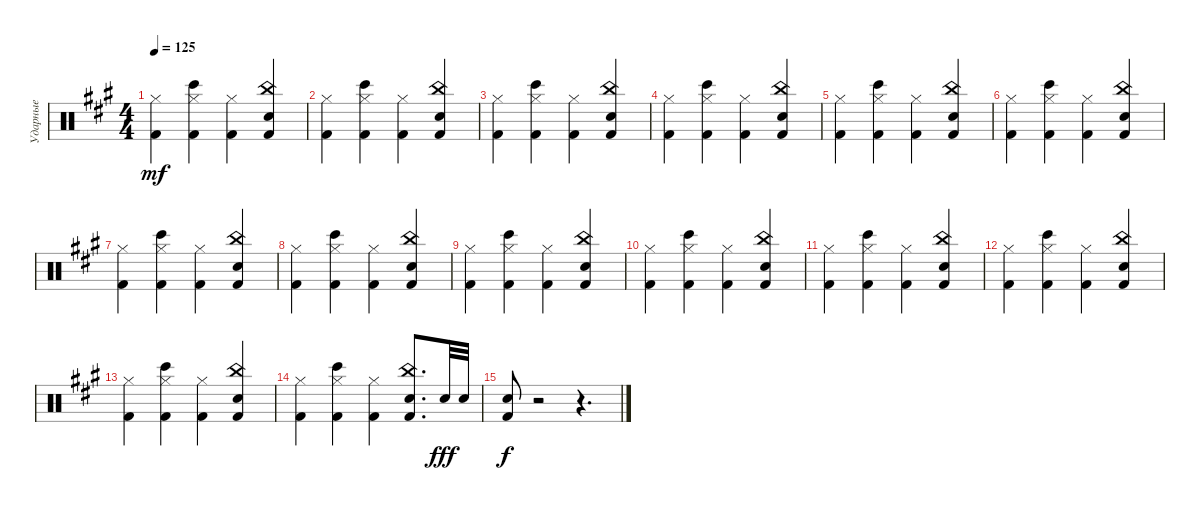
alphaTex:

\track ("Ударные" "Ударные") {instrument percussion}
\staff {score}
\articulation defaults
\ts (4 4)
\tempo 125
\clef neutral
\ks f#minor
("Hi-Hat (closed)" "Kick (hit) 2").4{dy mf} ("Hi-Hat (closed)" "Bongo High (hit)" "Kick (hit) 2").4 ("Hi-Hat (closed)" "Kick (hit) 2").4 ("China (hit)" "Electric Snare (hit)" "Kick (hit) 2").4 |
("Hi-Hat (closed)" "Kick (hit) 2").4 ("Hi-Hat (closed)" "Bongo High (hit)" "Kick (hit) 2").4 ("Hi-Hat (closed)" "Kick (hit) 2").4 ("China (hit)" "Electric Snare (hit)" "Kick (hit) 2").4 |
("Hi-Hat (closed)" "Kick (hit) 2").4 ("Hi-Hat (closed)" "Bongo High (hit)" "Kick (hit) 2").4 ("Hi-Hat (closed)" "Kick (hit) 2").4 ("China (hit)" "Electric Snare (hit)" "Kick (hit) 2").4 |
("Hi-Hat (closed)" "Kick (hit) 2").4 ("Hi-Hat (closed)" "Bongo High (hit)" "Kick (hit) 2").4 ("Hi-Hat (closed)" "Kick (hit) 2").4 ("China (hit)" "Electric Snare (hit)" "Kick (hit) 2").4 |
("Hi-Hat (closed)" "Kick (hit) 2").4 ("Hi-Hat (closed)" "Bongo High (hit)" "Kick (hit) 2").4 ("Hi-Hat (closed)" "Kick (hit) 2").4 ("China (hit)" "Electric Snare (hit)" "Kick (hit) 2").4 |
("Hi-Hat (closed)" "Kick (hit) 2").4 ("Hi-Hat (closed)" "Bongo High (hit)" "Kick (hit) 2").4 ("Hi-Hat (closed)" "Kick (hit) 2").4 ("China (hit)" "Electric Snare (hit)" "Kick (hit) 2").4 |
("Hi-Hat (closed)" "Kick (hit) 2").4 ("Hi-Hat (closed)" "Bongo High (hit)" "Kick (hit) 2").4 ("Hi-Hat (closed)" "Kick (hit) 2").4 ("China (hit)" "Electric Snare (hit)" "Kick (hit) 2").4 |
("Hi-Hat (closed)" "Kick (hit) 2").4 ("Hi-Hat (closed)" "Bongo High (hit)" "Kick (hit) 2").4 ("Hi-Hat (closed)" "Kick (hit) 2").4 ("China (hit)" "Electric Snare (hit)" "Kick (hit) 2").4 |
("Hi-Hat (closed)" "Kick (hit) 2").4 ("Hi-Hat (closed)" "Bongo High (hit)" "Kick (hit) 2").4 ("Hi-Hat (closed)" "Kick (hit) 2").4 ("China (hit)" "Electric Snare (hit)" "Kick (hit) 2").4 |
("Hi-Hat (closed)" "Kick (hit) 2").4 ("Hi-Hat (closed)" "Bongo High (hit)" "Kick (hit) 2").4 ("Hi-Hat (closed)" "Kick (hit) 2").4 ("China (hit)" "Electric Snare (hit)" "Kick (hit) 2").4 |
("Hi-Hat (closed)" "Kick (hit) 2").4 ("Hi-Hat (closed)" "Bongo High (hit)" "Kick (hit) 2").4 ("Hi-Hat (closed)" "Kick (hit) 2").4 ("China (hit)" "Electric Snare (hit)" "Kick (hit) 2").4 |
("Hi-Hat (closed)" "Kick (hit) 2").4 ("Hi-Hat (closed)" "Bongo High (hit)" "Kick (hit) 2").4 ("Hi-Hat (closed)" "Kick (hit) 2").4 ("China (hit)" "Electric Snare (hit)" "Kick (hit) 2").4 |
("Hi-Hat (closed)" "Kick (hit) 2").4 ("Hi-Hat (closed)" "Bongo High (hit)" "Kick (hit) 2").4 ("Hi-Hat (closed)" "Kick (hit) 2").4 ("China (hit)" "Electric Snare (hit)" "Kick (hit) 2").4 |
("Hi-Hat (closed)" "Kick (hit) 2").4 ("Hi-Hat (closed)" "Bongo High (hit)" "Kick (hit) 2").4 ("Hi-Hat (closed)" "Kick (hit) 2").4 ("China (hit)" "Electric Snare (hit)" "Kick (hit) 2").8{d} "Snare (hit) 2".32{dy fff} "Snare (hit) 2".32 |
("Snare (hit) 2" "Kick (hit) 2").8{dy f} r.2 r.4{d}
